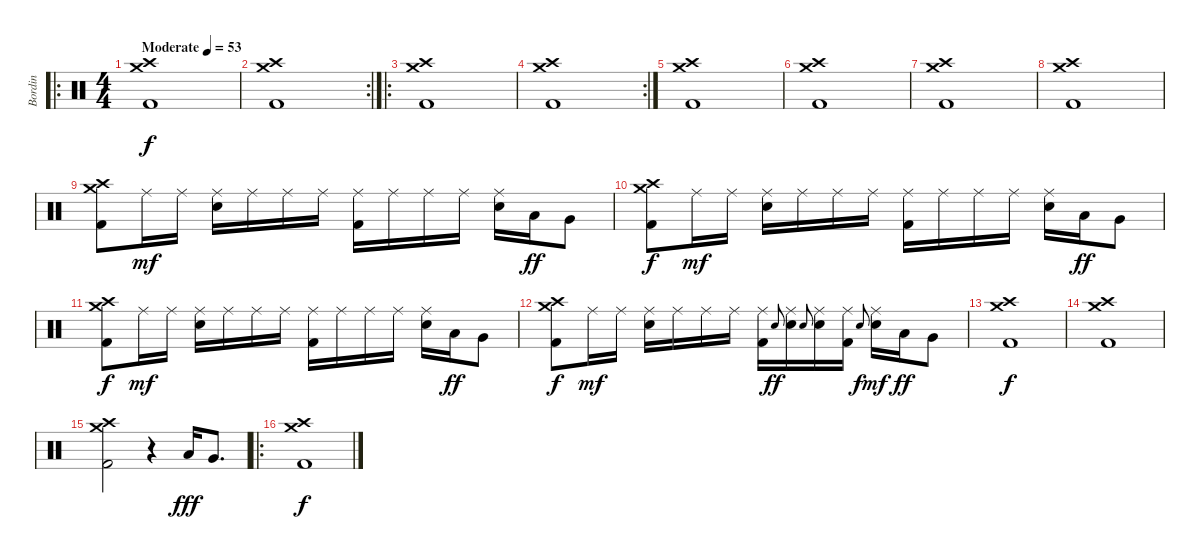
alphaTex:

\track ("Bordin" "Bordin") {instrument percussion}
\staff {score}
\articulation defaults
\ro
\ts (4 4)
\tempo (53 "Moderate")
\clef neutral
\ks c
("Crash high (hit)" "Crash medium (hit)" "Kick (hit) 2").1{dy f} |
\rc 2
("Crash high (hit)" "Crash medium (hit)" "Kick (hit) 2").1 |
\ro
("Crash high (hit)" "Crash medium (hit)" "Kick (hit) 2").1 |
\rc 2
("Crash high (hit)" "Crash medium (hit)" "Kick (hit) 2").1 |
("Crash high (hit)" "Crash medium (hit)" "Kick (hit) 2").1 |
("Crash high (hit)" "Crash medium (hit)" "Kick (hit) 2").1 |
("Crash high (hit)" "Crash medium (hit)" "Kick (hit) 2").1 |
("Crash high (hit)" "Crash medium (hit)" "Kick (hit) 2").1 |
("Crash high (hit)" "Crash medium (hit)" "Kick (hit) 2").8 "Ride (middle)".16{dy mf} "Ride (middle)".16 ("Ride (middle)" "Electric Snare (hit)").16 "Ride (middle)".16 "Ride (middle)".16 "Ride (middle)".16 ("Ride (middle)" "Kick (hit) 2").16 "Ride (middle)".16 "Ride (middle)".16 "Ride (middle)".16 ("Ride (middle)" "Electric Snare (hit)").16 "Low Tom (hit)".16{dy ff} "Very Low Tom (hit)".8 |
("Crash high (hit)" "Crash medium (hit)" "Kick (hit) 2").8{dy f} "Ride (middle)".16{dy mf} "Ride (middle)".16 ("Ride (middle)" "Electric Snare (hit)").16 "Ride (middle)".16 "Ride (middle)".16 "Ride (middle)".16 ("Ride (middle)" "Kick (hit) 2").16 "Ride (middle)".16 "Ride (middle)".16 "Ride (middle)".16 ("Ride (middle)" "Electric Snare (hit)").16 "Low Tom (hit)".16{dy ff} "Very Low Tom (hit)".8 |
("Crash high (hit)" "Crash medium (hit)" "Kick (hit) 2").8{dy f} "Ride (middle)".16{dy mf} "Ride (middle)".16 ("Ride (middle)" "Electric Snare (hit)").16 "Ride (middle)".16 "Ride (middle)".16 "Ride (middle)".16 ("Ride (middle)" "Kick (hit) 2").16 "Ride (middle)".16 "Ride (middle)".16 "Ride (middle)".16 ("Ride (middle)" "Electric Snare (hit)").16 "Low Tom (hit)".16{dy ff} "Very Low Tom (hit)".8 |
("Crash high (hit)" "Crash medium (hit)" "Kick (hit) 2").8{dy f} "Ride (middle)".16{dy mf} "Ride (middle)".16 ("Ride (middle)" "Electric Snare (hit)").16 "Ride (middle)".16 "Ride (middle)".16 "Ride (middle)".16 ("Ride (middle)" "Kick (hit) 2").16 "Electric Snare (hit)".8{gr onbeat dy ff} ("Ride (middle)" "Electric Snare (hit)").16 "Electric Snare (hit)".8{gr onbeat} ("Ride (middle)" "Electric Snare (hit)").16 ("Ride (middle)" "Kick (hit) 2").16 "Electric Snare (hit)".8{gr onbeat dy f} ("Ride (middle)" "Electric Snare (hit)").16{dy mf} "Low Tom (hit)".16{dy ff} "Very Low Tom (hit)".8 |
("Crash high (hit)" "Crash medium (hit)" "Kick (hit) 2").1{dy f} |
("Crash high (hit)" "Crash medium (hit)" "Kick (hit) 2").1 |
("Crash high (hit)" "Crash medium (hit)" "Kick (hit) 2").2 r.4 "Low Tom (hit)".16{dy fff} "Very Low Tom (hit)".8{d} |
\ro
("Crash high (hit)" "Crash medium (hit)" "Kick (hit) 2").1{dy f}
